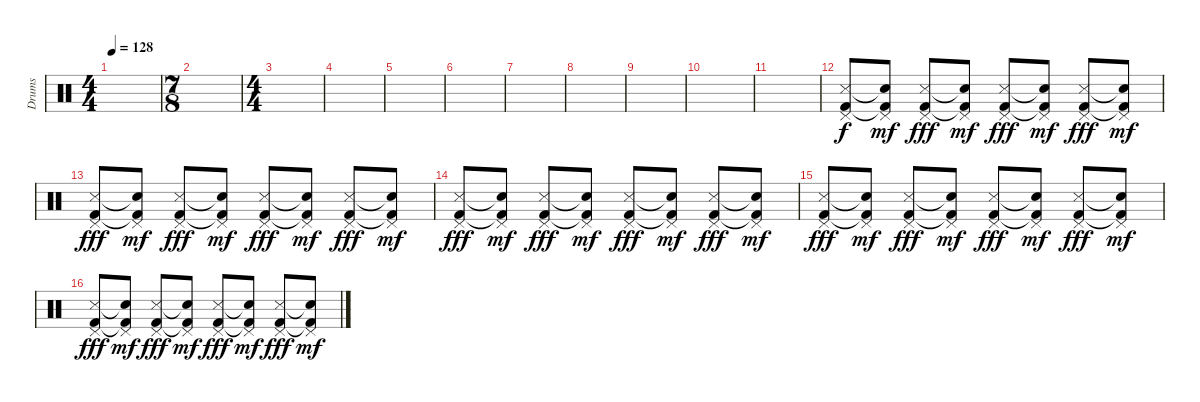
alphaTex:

\track ("Drums" "Drums") {instrument percussion}
\staff {score}
\articulation defaults
\ts (4 4)
\tempo 128
\clef neutral
\ks c
|
\ts (7 8)
|
\ts (4 4)
|
|
|
|
|
|
|
|
|
("Pedal Hi-Hat (hit)" "Snare (side stick) 3" "Kick (hit) 2").8 ("Pedal Hi-Hat (hit)" "Snare (hit)"{t} "Kick (hit) 2"{t}).8{dy mf} ("Pedal Hi-Hat (hit)" "Snare (side stick) 3" "Kick (hit) 2").8{dy fff} ("Pedal Hi-Hat (hit)" "Snare (hit)"{t} "Kick (hit) 2"{t}).8{dy mf} ("Pedal Hi-Hat (hit)" "Snare (side stick) 3" "Kick (hit) 2").8{dy fff} ("Pedal Hi-Hat (hit)" "Snare (hit)"{t} "Kick (hit) 2"{t}).8{dy mf} ("Pedal Hi-Hat (hit)" "Snare (side stick) 3" "Kick (hit) 2").8{dy fff} ("Pedal Hi-Hat (hit)" "Snare (hit)"{t} "Kick (hit) 2"{t}).8{dy mf} |
("Pedal Hi-Hat (hit)" "Snare (side stick) 3" "Kick (hit) 2").8{dy fff} ("Pedal Hi-Hat (hit)" "Snare (hit)"{t} "Kick (hit) 2"{t}).8{dy mf} ("Pedal Hi-Hat (hit)" "Snare (side stick) 3" "Kick (hit) 2").8{dy fff} ("Pedal Hi-Hat (hit)" "Snare (hit)"{t} "Kick (hit) 2"{t}).8{dy mf} ("Pedal Hi-Hat (hit)" "Snare (side stick) 3" "Kick (hit) 2").8{dy fff} ("Pedal Hi-Hat (hit)" "Snare (hit)"{t} "Kick (hit) 2"{t}).8{dy mf} ("Pedal Hi-Hat (hit)" "Snare (side stick) 3" "Kick (hit) 2").8{dy fff} ("Pedal Hi-Hat (hit)" "Snare (hit)"{t} "Kick (hit) 2"{t}).8{dy mf} |
("Pedal Hi-Hat (hit)" "Snare (side stick) 3" "Kick (hit) 2").8{dy fff} ("Pedal Hi-Hat (hit)" "Snare (hit)"{t} "Kick (hit) 2"{t}).8{dy mf} ("Pedal Hi-Hat (hit)" "Snare (side stick) 3" "Kick (hit) 2").8{dy fff} ("Pedal Hi-Hat (hit)" "Snare (hit)"{t} "Kick (hit) 2"{t}).8{dy mf} ("Pedal Hi-Hat (hit)" "Snare (side stick) 3" "Kick (hit) 2").8{dy fff} ("Pedal Hi-Hat (hit)" "Snare (hit)"{t} "Kick (hit) 2"{t}).8{dy mf} ("Pedal Hi-Hat (hit)" "Snare (side stick) 3" "Kick (hit) 2").8{dy fff} ("Pedal Hi-Hat (hit)" "Snare (hit)"{t} "Kick (hit) 2"{t}).8{dy mf} |
("Pedal Hi-Hat (hit)" "Snare (side stick) 3" "Kick (hit) 2").8{dy fff} ("Pedal Hi-Hat (hit)" "Snare (hit)"{t} "Kick (hit) 2"{t}).8{dy mf} ("Pedal Hi-Hat (hit)" "Snare (side stick) 3" "Kick (hit) 2").8{dy fff} ("Pedal Hi-Hat (hit)" "Snare (hit)"{t} "Kick (hit) 2"{t}).8{dy mf} ("Pedal Hi-Hat (hit)" "Snare (side stick) 3" "Kick (hit) 2").8{dy fff} ("Pedal Hi-Hat (hit)" "Snare (hit)"{t} "Kick (hit) 2"{t}).8{dy mf} ("Pedal Hi-Hat (hit)" "Snare (side stick) 3" "Kick (hit) 2").8{dy fff} ("Pedal Hi-Hat (hit)" "Snare (hit)"{t} "Kick (hit) 2"{t}).8{dy mf} |
("Pedal Hi-Hat (hit)" "Snare (side stick) 3" "Kick (hit) 2").8{dy fff} ("Pedal Hi-Hat (hit)" "Snare (hit)"{t} "Kick (hit) 2"{t}).8{dy mf} ("Pedal Hi-Hat (hit)" "Snare (side stick) 3" "Kick (hit) 2").8{dy fff} ("Pedal Hi-Hat (hit)" "Snare (hit)"{t} "Kick (hit) 2"{t}).8{dy mf} ("Pedal Hi-Hat (hit)" "Snare (side stick) 3" "Kick (hit) 2").8{dy fff} ("Pedal Hi-Hat (hit)" "Snare (hit)"{t} "Kick (hit) 2"{t}).8{dy mf} ("Pedal Hi-Hat (hit)" "Snare (side stick) 3" "Kick (hit) 2").8{dy fff} ("Pedal Hi-Hat (hit)" "Snare (hit)"{t} "Kick (hit) 2"{t}).8{dy mf}
